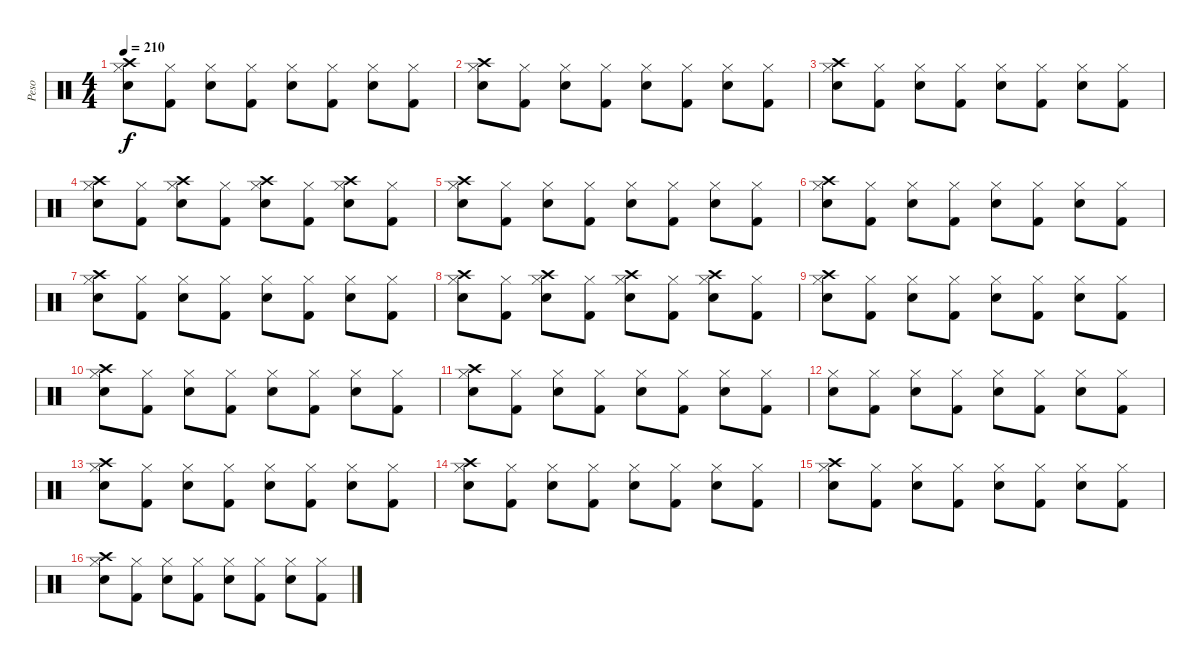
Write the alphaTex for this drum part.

\track ("Peso" "Peso") {instrument percussion}
\staff {score}
\articulation defaults
\ts (4 4)
\tempo 210
\clef neutral
\ks c
("Crash high (hit)" "Hi-Hat (closed)" "Snare (hit) 2").8{dy f} ("Hi-Hat (closed)" "Kick (hit) 2").8 ("Hi-Hat (closed)" "Snare (hit) 2").8 ("Hi-Hat (closed)" "Kick (hit) 2").8 ("Hi-Hat (closed)" "Snare (hit) 2").8 ("Hi-Hat (closed)" "Kick (hit) 2").8 ("Hi-Hat (closed)" "Snare (hit) 2").8 ("Hi-Hat (closed)" "Kick (hit) 2").8 |
("Crash high (hit)" "Hi-Hat (closed)" "Snare (hit) 2").8 ("Hi-Hat (closed)" "Kick (hit) 2").8 ("Hi-Hat (closed)" "Snare (hit) 2").8 ("Hi-Hat (closed)" "Kick (hit) 2").8 ("Hi-Hat (closed)" "Snare (hit) 2").8 ("Hi-Hat (closed)" "Kick (hit) 2").8 ("Hi-Hat (closed)" "Snare (hit) 2").8 ("Hi-Hat (closed)" "Kick (hit) 2").8 |
("Crash high (hit)" "Hi-Hat (closed)" "Snare (hit) 2").8 ("Hi-Hat (closed)" "Kick (hit) 2").8 ("Hi-Hat (closed)" "Snare (hit) 2").8 ("Hi-Hat (closed)" "Kick (hit) 2").8 ("Hi-Hat (closed)" "Snare (hit) 2").8 ("Hi-Hat (closed)" "Kick (hit) 2").8 ("Hi-Hat (closed)" "Snare (hit) 2").8 ("Hi-Hat (closed)" "Kick (hit) 2").8 |
("Crash high (hit)" "Hi-Hat (closed)" "Snare (hit) 2").8 ("Hi-Hat (closed)" "Kick (hit) 2").8 ("Crash high (hit)" "Hi-Hat (closed)" "Snare (hit) 2").8 ("Hi-Hat (closed)" "Kick (hit) 2").8 ("Crash high (hit)" "Hi-Hat (closed)" "Snare (hit) 2").8 ("Hi-Hat (closed)" "Kick (hit) 2").8 ("Crash high (hit)" "Hi-Hat (closed)" "Snare (hit) 2").8 ("Hi-Hat (closed)" "Kick (hit) 2").8 |
("Crash high (hit)" "Hi-Hat (closed)" "Snare (hit) 2").8 ("Hi-Hat (closed)" "Kick (hit) 2").8 ("Hi-Hat (closed)" "Snare (hit) 2").8 ("Hi-Hat (closed)" "Kick (hit) 2").8 ("Hi-Hat (closed)" "Snare (hit) 2").8 ("Hi-Hat (closed)" "Kick (hit) 2").8 ("Hi-Hat (closed)" "Snare (hit) 2").8 ("Hi-Hat (closed)" "Kick (hit) 2").8 |
("Crash high (hit)" "Hi-Hat (closed)" "Snare (hit) 2").8 ("Hi-Hat (closed)" "Kick (hit) 2").8 ("Hi-Hat (closed)" "Snare (hit) 2").8 ("Hi-Hat (closed)" "Kick (hit) 2").8 ("Hi-Hat (closed)" "Snare (hit) 2").8 ("Hi-Hat (closed)" "Kick (hit) 2").8 ("Hi-Hat (closed)" "Snare (hit) 2").8 ("Hi-Hat (closed)" "Kick (hit) 2").8 |
("Crash high (hit)" "Hi-Hat (closed)" "Snare (hit) 2").8 ("Hi-Hat (closed)" "Kick (hit) 2").8 ("Hi-Hat (closed)" "Snare (hit) 2").8 ("Hi-Hat (closed)" "Kick (hit) 2").8 ("Hi-Hat (closed)" "Snare (hit) 2").8 ("Hi-Hat (closed)" "Kick (hit) 2").8 ("Hi-Hat (closed)" "Snare (hit) 2").8 ("Hi-Hat (closed)" "Kick (hit) 2").8 |
("Crash high (hit)" "Hi-Hat (closed)" "Snare (hit) 2").8 ("Hi-Hat (closed)" "Kick (hit) 2").8 ("Crash high (hit)" "Hi-Hat (closed)" "Snare (hit) 2").8 ("Hi-Hat (closed)" "Kick (hit) 2").8 ("Crash high (hit)" "Hi-Hat (closed)" "Snare (hit) 2").8 ("Hi-Hat (closed)" "Kick (hit) 2").8 ("Crash high (hit)" "Hi-Hat (closed)" "Snare (hit) 2").8 ("Hi-Hat (closed)" "Kick (hit) 2").8 |
("Crash high (hit)" "Hi-Hat (closed)" "Snare (hit) 2").8 ("Hi-Hat (closed)" "Kick (hit) 2").8 ("Hi-Hat (closed)" "Snare (hit) 2").8 ("Hi-Hat (closed)" "Kick (hit) 2").8 ("Hi-Hat (closed)" "Snare (hit) 2").8 ("Hi-Hat (closed)" "Kick (hit) 2").8 ("Hi-Hat (closed)" "Snare (hit) 2").8 ("Hi-Hat (closed)" "Kick (hit) 2").8 |
("Crash high (hit)" "Hi-Hat (closed)" "Snare (hit) 2").8 ("Hi-Hat (closed)" "Kick (hit) 2").8 ("Hi-Hat (closed)" "Snare (hit) 2").8 ("Hi-Hat (closed)" "Kick (hit) 2").8 ("Hi-Hat (closed)" "Snare (hit) 2").8 ("Hi-Hat (closed)" "Kick (hit) 2").8 ("Hi-Hat (closed)" "Snare (hit) 2").8 ("Hi-Hat (closed)" "Kick (hit) 2").8 |
("Crash high (hit)" "Hi-Hat (closed)" "Snare (hit) 2").8 ("Hi-Hat (closed)" "Kick (hit) 2").8 ("Hi-Hat (closed)" "Snare (hit) 2").8 ("Hi-Hat (closed)" "Kick (hit) 2").8 ("Hi-Hat (closed)" "Snare (hit) 2").8 ("Hi-Hat (closed)" "Kick (hit) 2").8 ("Hi-Hat (closed)" "Snare (hit) 2").8 ("Hi-Hat (closed)" "Kick (hit) 2").8 |
("Hi-Hat (closed)" "Snare (hit) 2").8 ("Hi-Hat (closed)" "Kick (hit) 2").8 ("Hi-Hat (closed)" "Snare (hit) 2").8 ("Hi-Hat (closed)" "Kick (hit) 2").8 ("Hi-Hat (closed)" "Snare (hit) 2").8 ("Hi-Hat (closed)" "Kick (hit) 2").8 ("Hi-Hat (closed)" "Snare (hit) 2").8 ("Hi-Hat (closed)" "Kick (hit) 2").8 |
("Crash high (hit)" "Hi-Hat (closed)" "Snare (hit) 2").8 ("Hi-Hat (closed)" "Kick (hit) 2").8 ("Hi-Hat (closed)" "Snare (hit) 2").8 ("Hi-Hat (closed)" "Kick (hit) 2").8 ("Hi-Hat (closed)" "Snare (hit) 2").8 ("Hi-Hat (closed)" "Kick (hit) 2").8 ("Hi-Hat (closed)" "Snare (hit) 2").8 ("Hi-Hat (closed)" "Kick (hit) 2").8 |
("Crash high (hit)" "Hi-Hat (closed)" "Snare (hit) 2").8 ("Hi-Hat (closed)" "Kick (hit) 2").8 ("Hi-Hat (closed)" "Snare (hit) 2").8 ("Hi-Hat (closed)" "Kick (hit) 2").8 ("Hi-Hat (closed)" "Snare (hit) 2").8 ("Hi-Hat (closed)" "Kick (hit) 2").8 ("Hi-Hat (closed)" "Snare (hit) 2").8 ("Hi-Hat (closed)" "Kick (hit) 2").8 |
("Crash high (hit)" "Hi-Hat (closed)" "Snare (hit) 2").8 ("Hi-Hat (closed)" "Kick (hit) 2").8 ("Hi-Hat (closed)" "Snare (hit) 2").8 ("Hi-Hat (closed)" "Kick (hit) 2").8 ("Hi-Hat (closed)" "Snare (hit) 2").8 ("Hi-Hat (closed)" "Kick (hit) 2").8 ("Hi-Hat (closed)" "Snare (hit) 2").8 ("Hi-Hat (closed)" "Kick (hit) 2").8 |
("Crash high (hit)" "Hi-Hat (closed)" "Snare (hit) 2").8 ("Hi-Hat (closed)" "Kick (hit) 2").8 ("Hi-Hat (closed)" "Snare (hit) 2").8 ("Hi-Hat (closed)" "Kick (hit) 2").8 ("Hi-Hat (closed)" "Snare (hit) 2").8 ("Hi-Hat (closed)" "Kick (hit) 2").8 ("Hi-Hat (closed)" "Snare (hit) 2").8 ("Hi-Hat (closed)" "Kick (hit) 2").8
